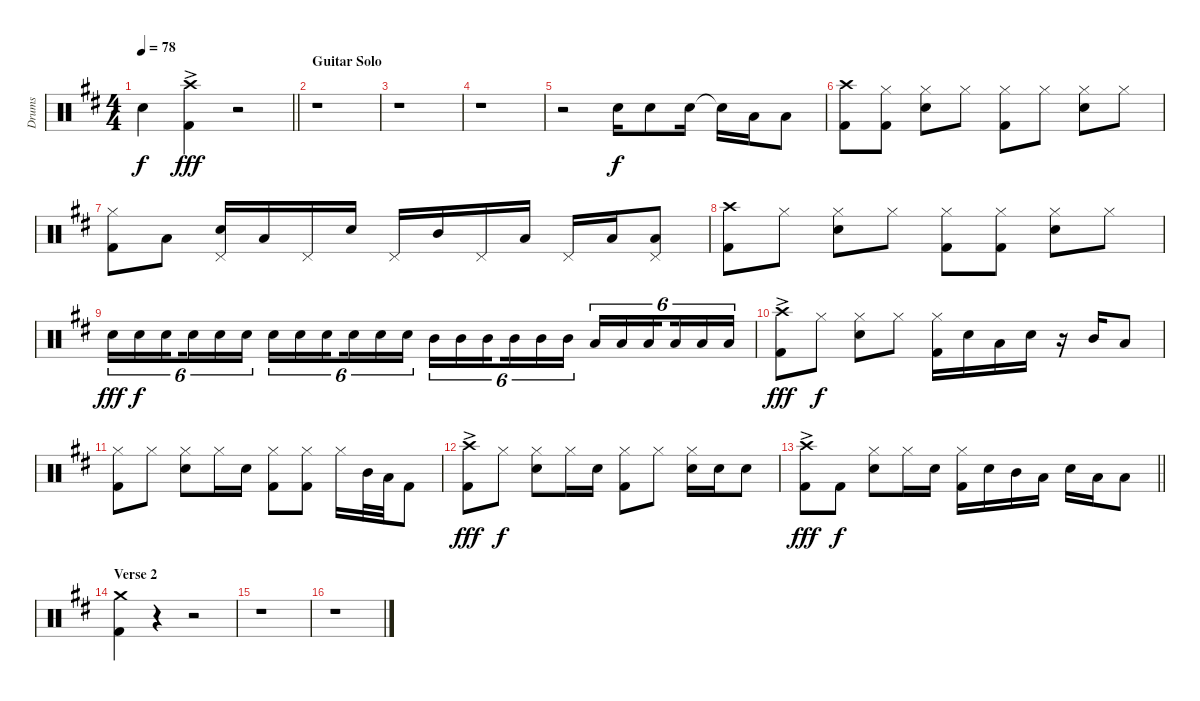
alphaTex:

\track ("Drums" "Drums") {instrument percussion}
\staff {score}
\articulation defaults
\ts (4 4)
\tempo 78
\clef neutral
\barLineRight lightlight
\ks d "Electric Snare (hit)".4{dy f}
("Crash high (hit)"{ac} "Kick (hit) 2").4{dy fff} r.2 |
\section ("" "Guitar Solo")
r.1 |
r.1 |
r.1 |
r.2 "Electric Snare (hit)".16{dy f} "Electric Snare (hit)".8 "Electric Snare (hit)".16 "Snare (hit)"{t}.16 "Low Tom (hit)".16 "Low Tom (hit)".8 |
("Crash high (hit)" "Kick (hit) 2").8 ("Hi-Hat (closed)" "Kick (hit) 2").8 ("Hi-Hat (closed)" "Electric Snare (hit)").8 "Hi-Hat (closed)".8 ("Hi-Hat (closed)" "Kick (hit) 2").8 "Hi-Hat (closed)".8 ("Hi-Hat (closed)" "Electric Snare (hit)").8 "Hi-Hat (closed)".8 |
("Hi-Hat (closed)" "Kick (hit) 2").8 "Low Tom (hit)".8 ("Pedal Hi-Hat (hit)" "Electric Snare (hit)").16 "Low Tom (hit)".16 "Pedal Hi-Hat (hit)".16 "Electric Snare (hit)".16 "Pedal Hi-Hat (hit)".16 "Mid Tom (hit)".16 "Pedal Hi-Hat (hit)".16 "Low Tom (hit)".16 "Pedal Hi-Hat (hit)".16 "Low Tom (hit)".16 ("Pedal Hi-Hat (hit)" "Low Tom (hit)").8 |
("Crash high (hit)" "Kick (hit) 2").8 "Hi-Hat (closed)".8 ("Hi-Hat (closed)" "Electric Snare (hit)").8 "Hi-Hat (closed)".8 ("Hi-Hat (closed)" "Kick (hit) 2").8 ("Hi-Hat (closed)" "Kick (hit) 2").8 ("Hi-Hat (closed)" "Electric Snare (hit)").8 "Hi-Hat (closed)".8 |
"Electric Snare (hit)".16{tu (6 4) dy fff} "Electric Snare (hit)".16{tu (6 4) dy f} "Electric Snare (hit)".16{tu (6 4) beam splitsecondary} "Electric Snare (hit)".16{tu (6 4)} "Electric Snare (hit)".16{tu (6 4)} "Electric Snare (hit)".16{tu (6 4)} "Electric Snare (hit)".16{tu (6 4)} "Electric Snare (hit)".16{tu (6 4)} "Electric Snare (hit)".16{tu (6 4) beam splitsecondary} "Electric Snare (hit)".16{tu (6 4)} "Electric Snare (hit)".16{tu (6 4)} "Electric Snare (hit)".16{tu (6 4)} "Mid Tom (hit)".16{tu (6 4)} "Mid Tom (hit)".16{tu (6 4)} "Mid Tom (hit)".16{tu (6 4) beam splitsecondary} "Mid Tom (hit)".16{tu (6 4)} "Mid Tom (hit)".16{tu (6 4)} "Mid Tom (hit)".16{tu (6 4)} "Low Tom (hit)".16{tu (6 4)} "Low Tom (hit)".16{tu (6 4)} "Low Tom (hit)".16{tu (6 4) beam splitsecondary} "Low Tom (hit)".16{tu (6 4)} "Low Tom (hit)".16{tu (6 4)} "Low Tom (hit)".16{tu (6 4)} |
("Crash high (hit)"{ac} "Kick (hit) 2").8{dy fff} "Hi-Hat (closed)".8{dy f} ("Hi-Hat (closed)" "Electric Snare (hit)").8 "Hi-Hat (closed)".8 ("Hi-Hat (closed)" "Kick (hit) 2").16 "Electric Snare (hit)".16 "Low Tom (hit)".16 "Electric Snare (hit)".16 r.16 "Mid Tom (hit)".16 "Low Tom (hit)".8 |
("Hi-Hat (closed)" "Kick (hit) 2").8 "Hi-Hat (closed)".8 ("Hi-Hat (closed)" "Electric Snare (hit)").8 "Hi-Hat (closed)".16 "Electric Snare (hit)".16 ("Hi-Hat (closed)" "Kick (hit) 2").8 ("Hi-Hat (closed)" "Kick (hit) 2").8 "Hi-Hat (closed)".16 "Mid Tom (hit)".32 "Low Tom (hit)".32 "Kick (hit) 2".8 |
("Crash high (hit)"{ac} "Kick (hit) 2").8{dy fff} "Hi-Hat (closed)".8{dy f} ("Hi-Hat (closed)" "Electric Snare (hit)").8 "Hi-Hat (closed)".16 "Electric Snare (hit)".16 ("Hi-Hat (closed)" "Kick (hit) 2").8 "Hi-Hat (closed)".8 ("Hi-Hat (closed)" "Electric Snare (hit)").16 "Electric Snare (hit)".16 "Electric Snare (hit)".8 |
\barLineRight lightlight
("Crash high (hit)"{ac} "Kick (hit) 2").8{dy fff} "Kick (hit) 2".8{dy f} ("Hi-Hat (closed)" "Electric Snare (hit)").8 "Hi-Hat (closed)".16 "Electric Snare (hit)".16 ("Hi-Hat (closed)" "Kick (hit) 2").16 "Electric Snare (hit)".16 "Mid Tom (hit)".16 "Low Tom (hit)".16 "Electric Snare (hit)".16 "Low Tom (hit)".16 "Low Tom (hit)".8 |
\section ("" "Verse 2")
("Crash medium (hit)" "Kick (hit) 2").4 r.4 r.2 |
r.1 |
r.1
